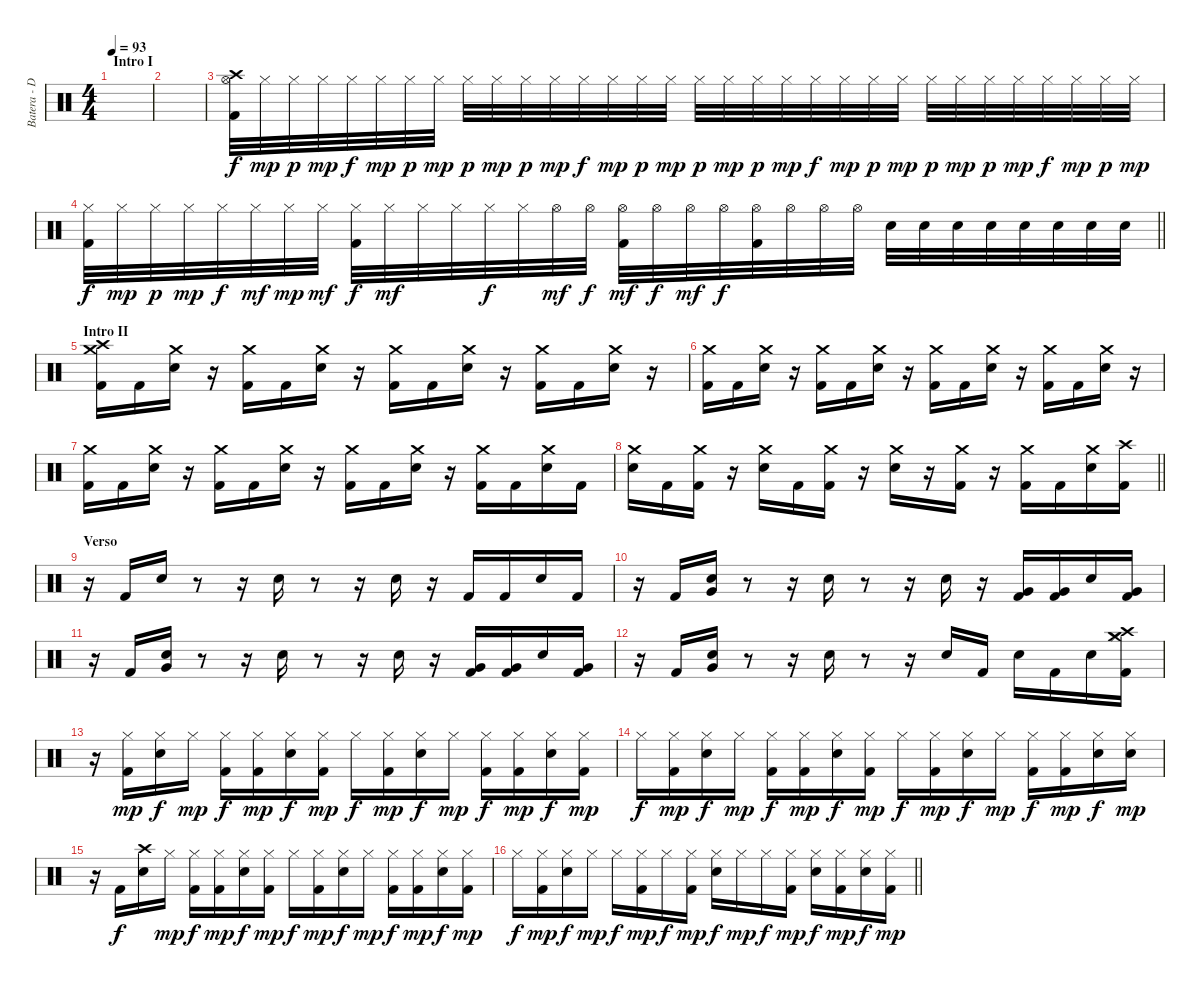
\track ("Batera - Daniel" "Batera - D") {instrument percussion}
\staff {score}
\articulation defaults
\ts (4 4)
\section ("" "Intro I")
\tempo 93
\clef neutral
\ks c
|
|
("Crash high (hit)" "Hi-Hat (open)" "Kick (hit) 2").32 "Hi-Hat (closed)".32{dy mp} "Hi-Hat (closed)".32{dy p} "Hi-Hat (closed)".32{dy mp} "Hi-Hat (closed)".32{dy f} "Hi-Hat (closed)".32{dy mp} "Hi-Hat (closed)".32{dy p} "Hi-Hat (closed)".32{dy mp} "Hi-Hat (closed)".32{dy p} "Hi-Hat (closed)".32{dy mp} "Hi-Hat (closed)".32{dy p} "Hi-Hat (closed)".32{dy mp} "Hi-Hat (closed)".32{dy f} "Hi-Hat (closed)".32{dy mp} "Hi-Hat (closed)".32{dy p} "Hi-Hat (closed)".32{dy mp} "Hi-Hat (closed)".32{dy p} "Hi-Hat (closed)".32{dy mp} "Hi-Hat (closed)".32{dy p} "Hi-Hat (closed)".32{dy mp} "Hi-Hat (closed)".32{dy f} "Hi-Hat (closed)".32{dy mp} "Hi-Hat (closed)".32{dy p} "Hi-Hat (closed)".32{dy mp} "Hi-Hat (closed)".32{dy p} "Hi-Hat (closed)".32{dy mp} "Hi-Hat (closed)".32{dy p} "Hi-Hat (closed)".32{dy mp} "Hi-Hat (closed)".32{dy f} "Hi-Hat (closed)".32{dy mp} "Hi-Hat (closed)".32{dy p} "Hi-Hat (closed)".32{dy mp} |
\barLineRight lightlight
("Hi-Hat (closed)" "Kick (hit) 2").32{dy f} "Hi-Hat (closed)".32{dy mp} "Hi-Hat (closed)".32{dy p} "Hi-Hat (closed)".32{dy mp} "Hi-Hat (closed)".32{dy f} "Hi-Hat (closed)".32{dy mf} "Hi-Hat (closed)".32{dy mp} "Hi-Hat (closed)".32{dy mf} ("Hi-Hat (closed)" "Kick (hit) 2").32{dy f} "Hi-Hat (closed)".32{dy mf} "Hi-Hat (closed)".32 "Hi-Hat (closed)".32 "Hi-Hat (closed)".32{dy f} "Hi-Hat (closed)".32 "Hi-Hat (open)".32{dy mf} "Hi-Hat (open)".32{dy f} ("Hi-Hat (open)" "Kick (hit) 2").32{dy mf} "Hi-Hat (open)".32{dy f} "Hi-Hat (open)".32{dy mf} "Hi-Hat (open)".32{dy f} ("Hi-Hat (open)" "Kick (hit) 2").32 "Hi-Hat (open)".32 "Hi-Hat (open)".32 "Hi-Hat (open)".32 "Electric Snare (hit)".32 "Electric Snare (hit)".32 "Electric Snare (hit)".32 "Electric Snare (hit)".32 "Electric Snare (hit)".32 "Electric Snare (hit)".32 "Electric Snare (hit)".32 "Electric Snare (hit)".32 |
\section ("" "Intro II")
("Crash high (hit)" "Crash medium (hit)" "Kick (hit) 2").16 "Kick (hit) 2".16 ("Crash medium (hit)" "Electric Snare (hit)").16 r.16 ("Crash medium (hit)" "Kick (hit) 2").16 "Kick (hit) 2".16 ("Crash medium (hit)" "Electric Snare (hit)").16 r.16 ("Crash medium (hit)" "Kick (hit) 2").16 "Kick (hit) 2".16 ("Crash medium (hit)" "Electric Snare (hit)").16 r.16 ("Crash medium (hit)" "Kick (hit) 2").16 "Kick (hit) 2".16 ("Crash medium (hit)" "Electric Snare (hit)").16 r.16 |
("Crash medium (hit)" "Kick (hit) 2").16 "Kick (hit) 2".16 ("Crash medium (hit)" "Electric Snare (hit)").16 r.16 ("Crash medium (hit)" "Kick (hit) 2").16 "Kick (hit) 2".16 ("Crash medium (hit)" "Electric Snare (hit)").16 r.16 ("Crash medium (hit)" "Kick (hit) 2").16 "Kick (hit) 2".16 ("Crash medium (hit)" "Electric Snare (hit)").16 r.16 ("Crash medium (hit)" "Kick (hit) 2").16 "Kick (hit) 2".16 ("Crash medium (hit)" "Electric Snare (hit)").16 r.16 |
("Crash medium (hit)" "Kick (hit) 2").16 "Kick (hit) 2".16 ("Crash medium (hit)" "Electric Snare (hit)").16 r.16 ("Crash medium (hit)" "Kick (hit) 2").16 "Kick (hit) 2".16 ("Crash medium (hit)" "Electric Snare (hit)").16 r.16 ("Crash medium (hit)" "Kick (hit) 2").16 "Kick (hit) 2".16 ("Crash medium (hit)" "Electric Snare (hit)").16 r.16 ("Crash medium (hit)" "Kick (hit) 2").16 "Kick (hit) 2".16 ("Crash medium (hit)" "Electric Snare (hit)").16 "Kick (hit) 2".16 |
\barLineRight lightlight
("Crash medium (hit)" "Electric Snare (hit)").16 "Kick (hit) 2".16 ("Crash medium (hit)" "Kick (hit) 2").16 r.16 ("Crash medium (hit)" "Electric Snare (hit)").16 "Kick (hit) 2".16 ("Crash medium (hit)" "Kick (hit) 2").16 r.16 ("Crash medium (hit)" "Electric Snare (hit)").16 r.16 ("Crash medium (hit)" "Kick (hit) 2").16 r.16 ("Crash medium (hit)" "Kick (hit) 2").16 "Kick (hit) 2".16 ("Crash medium (hit)" "Electric Snare (hit)").16 ("Crash high (hit)" "Kick (hit) 2").16 |
\section ("" "Verso")
r.16 "Kick (hit) 2".16 "Electric Snare (hit)".16 r.8 r.16 "Electric Snare (hit)".16 r.8 r.16 "Electric Snare (hit)".16 r.16 "Kick (hit) 2".16 "Kick (hit) 2".16 "Electric Snare (hit)".16 "Kick (hit) 2".16 |
r.16 "Kick (hit) 2".16 ("Electric Snare (hit)" "Very Low Tom (hit)").16 r.8 r.16 "Electric Snare (hit)".16 r.8 r.16 "Electric Snare (hit)".16 r.16 ("Very Low Tom (hit)" "Kick (hit) 2").16 ("Very Low Tom (hit)" "Kick (hit) 2").16 "Electric Snare (hit)".16 ("Very Low Tom (hit)" "Kick (hit) 2").16 |
r.16 "Kick (hit) 2".16 ("Electric Snare (hit)" "Very Low Tom (hit)").16 r.8 r.16 "Electric Snare (hit)".16 r.8 r.16 "Electric Snare (hit)".16 r.16 ("Very Low Tom (hit)" "Kick (hit) 2").16 ("Very Low Tom (hit)" "Kick (hit) 2").16 "Electric Snare (hit)".16 ("Very Low Tom (hit)" "Kick (hit) 2").16 |
r.16 "Kick (hit) 2".16 ("Electric Snare (hit)" "Very Low Tom (hit)").16 r.8 r.16 "Electric Snare (hit)".16 r.8 r.16 "Electric Snare (hit)".16 "Kick (hit) 2".16 "Electric Snare (hit)".16 "Kick (hit) 2".16 "Electric Snare (hit)".16 ("Crash high (hit)" "Crash medium (hit)" "Hi-Hat (closed)" "Kick (hit) 2").16 |
r.16 ("Hi-Hat (closed)" "Kick (hit) 2").16{dy mp} ("Hi-Hat (closed)" "Electric Snare (hit)").16{dy f} "Hi-Hat (closed)".16{dy mp} ("Hi-Hat (closed)" "Kick (hit) 2").16{dy f} ("Hi-Hat (closed)" "Kick (hit) 2").16{dy mp} ("Hi-Hat (closed)" "Electric Snare (hit)").16{dy f} ("Hi-Hat (closed)" "Kick (hit) 2").16{dy mp} "Hi-Hat (closed)".16{dy f} ("Hi-Hat (closed)" "Kick (hit) 2").16{dy mp} ("Hi-Hat (closed)" "Electric Snare (hit)").16{dy f} "Hi-Hat (closed)".16{dy mp} ("Hi-Hat (closed)" "Kick (hit) 2").16{dy f} ("Hi-Hat (closed)" "Kick (hit) 2").16{dy mp} ("Hi-Hat (closed)" "Electric Snare (hit)").16{dy f} ("Hi-Hat (closed)" "Kick (hit) 2").16{dy mp} |
"Hi-Hat (closed)".16{dy f} ("Hi-Hat (closed)" "Kick (hit) 2").16{dy mp} ("Hi-Hat (closed)" "Electric Snare (hit)").16{dy f} "Hi-Hat (closed)".16{dy mp} ("Hi-Hat (closed)" "Kick (hit) 2").16{dy f} ("Hi-Hat (closed)" "Kick (hit) 2").16{dy mp} ("Hi-Hat (closed)" "Electric Snare (hit)").16{dy f} ("Hi-Hat (closed)" "Kick (hit) 2").16{dy mp} "Hi-Hat (closed)".16{dy f} ("Hi-Hat (closed)" "Kick (hit) 2").16{dy mp} ("Hi-Hat (closed)" "Electric Snare (hit)").16{dy f} "Hi-Hat (closed)".16{dy mp} ("Hi-Hat (closed)" "Kick (hit) 2").16{dy f} ("Hi-Hat (closed)" "Kick (hit) 2").16{dy mp} ("Hi-Hat (closed)" "Electric Snare (hit)").16{dy f} ("Hi-Hat (closed)" "Electric Snare (hit)").16{dy mp} |
r.16 "Kick (hit) 2".16{dy f} ("Crash high (hit)" "Electric Snare (hit)").16 "Hi-Hat (closed)".16{dy mp} ("Hi-Hat (closed)" "Kick (hit) 2").16{dy f} ("Hi-Hat (closed)" "Kick (hit) 2").16{dy mp} ("Hi-Hat (closed)" "Electric Snare (hit)").16{dy f} ("Hi-Hat (closed)" "Kick (hit) 2").16{dy mp} "Hi-Hat (closed)".16{dy f} ("Hi-Hat (closed)" "Kick (hit) 2").16{dy mp} ("Hi-Hat (closed)" "Electric Snare (hit)").16{dy f} "Hi-Hat (closed)".16{dy mp} ("Hi-Hat (closed)" "Kick (hit) 2").16{dy f} ("Hi-Hat (closed)" "Kick (hit) 2").16{dy mp} ("Hi-Hat (closed)" "Electric Snare (hit)").16{dy f} ("Hi-Hat (closed)" "Kick (hit) 2").16{dy mp} |
\barLineRight lightlight "Hi-Hat (closed)".16{dy f}
("Hi-Hat (closed)" "Kick (hit) 2").16{dy mp} ("Hi-Hat (closed)" "Electric Snare (hit)").16{dy f} "Hi-Hat (closed)".16{dy mp} "Hi-Hat (closed)".16{dy f} ("Hi-Hat (closed)" "Kick (hit) 2").16{dy mp} "Hi-Hat (closed)".16{dy f} ("Hi-Hat (closed)" "Kick (hit) 2").16{dy mp} ("Hi-Hat (closed)" "Electric Snare (hit)").16{dy f} "Hi-Hat (closed)".16{dy mp} "Hi-Hat (closed)".16{dy f} ("Hi-Hat (closed)" "Kick (hit) 2").16{dy mp} ("Hi-Hat (closed)" "Electric Snare (hit)").16{dy f} ("Hi-Hat (closed)" "Kick (hit) 2").16{dy mp} ("Hi-Hat (closed)" "Electric Snare (hit)").16{dy f} ("Hi-Hat (closed)" "Kick (hit) 2").16{dy mp}
